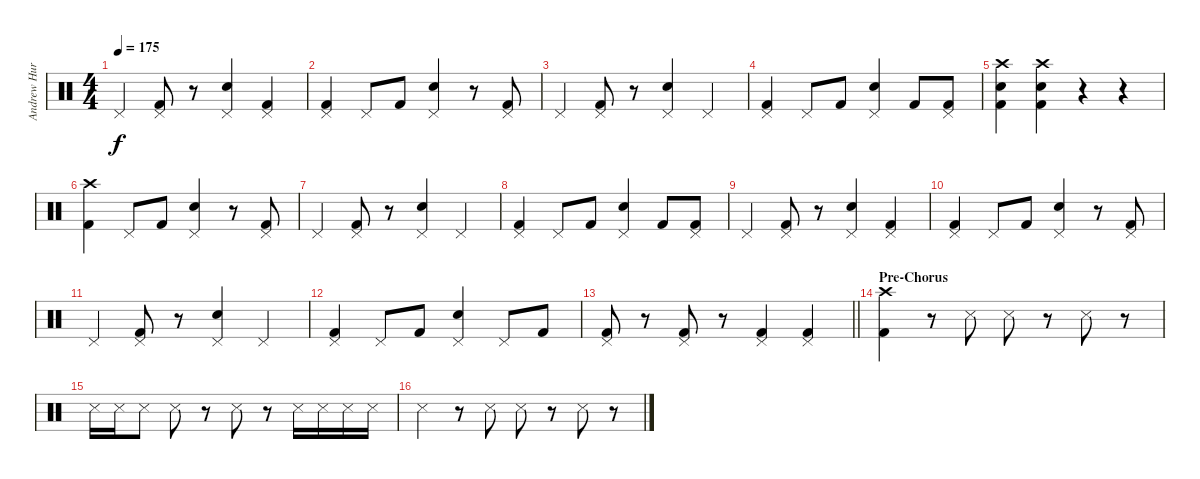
\track ("Andrew Hurley (Drums)" "Andrew Hur") {instrument percussion}
\staff {score}
\articulation defaults
\ts (4 4)
\tempo 175
\clef neutral
\ks c "Pedal Hi-Hat (hit)".4{dy f}
("Pedal Hi-Hat (hit)" "Kick (hit) 2").8 r.8 ("Pedal Hi-Hat (hit)" "Snare (hit) 2").4 ("Pedal Hi-Hat (hit)" "Kick (hit) 2").4 |
("Pedal Hi-Hat (hit)" "Kick (hit) 2").4 "Pedal Hi-Hat (hit)".8 "Kick (hit) 2".8 ("Pedal Hi-Hat (hit)" "Snare (hit) 2").4 r.8 ("Pedal Hi-Hat (hit)" "Kick (hit) 2").8 |
"Pedal Hi-Hat (hit)".4 ("Pedal Hi-Hat (hit)" "Kick (hit) 2").8 r.8 ("Pedal Hi-Hat (hit)" "Snare (hit) 2").4 "Pedal Hi-Hat (hit)".4 |
("Pedal Hi-Hat (hit)" "Kick (hit) 2").4 "Pedal Hi-Hat (hit)".8 "Kick (hit) 2".8 ("Pedal Hi-Hat (hit)" "Snare (hit) 2").4 "Kick (hit) 2".8 ("Pedal Hi-Hat (hit)" "Kick (hit) 2").8 |
("Snare (hit) 2" "Crash high (hit)" "Kick (hit) 2").4 ("Crash high (hit)" "Snare (hit) 2" "Kick (hit) 2").4 r.4 r.4 |
("Crash high (hit)" "Kick (hit) 2").4 "Pedal Hi-Hat (hit)".8 "Kick (hit) 2".8 ("Pedal Hi-Hat (hit)" "Snare (hit) 2").4 r.8 ("Pedal Hi-Hat (hit)" "Kick (hit) 2").8 |
"Pedal Hi-Hat (hit)".4 ("Pedal Hi-Hat (hit)" "Kick (hit) 2").8 r.8 ("Pedal Hi-Hat (hit)" "Snare (hit) 2").4 "Pedal Hi-Hat (hit)".4 |
("Pedal Hi-Hat (hit)" "Kick (hit) 2").4 "Pedal Hi-Hat (hit)".8 "Kick (hit) 2".8 ("Pedal Hi-Hat (hit)" "Snare (hit) 2").4 "Kick (hit) 2".8 ("Pedal Hi-Hat (hit)" "Kick (hit) 2").8 |
"Pedal Hi-Hat (hit)".4 ("Pedal Hi-Hat (hit)" "Kick (hit) 2").8 r.8 ("Pedal Hi-Hat (hit)" "Snare (hit) 2").4 ("Pedal Hi-Hat (hit)" "Kick (hit) 2").4 |
("Pedal Hi-Hat (hit)" "Kick (hit) 2").4 "Pedal Hi-Hat (hit)".8 "Kick (hit) 2".8 ("Pedal Hi-Hat (hit)" "Snare (hit) 2").4 r.8 ("Pedal Hi-Hat (hit)" "Kick (hit) 2").8 |
"Pedal Hi-Hat (hit)".4 ("Pedal Hi-Hat (hit)" "Kick (hit) 2").8 r.8 ("Pedal Hi-Hat (hit)" "Snare (hit) 2").4 "Pedal Hi-Hat (hit)".4 |
("Pedal Hi-Hat (hit)" "Kick (hit) 2").4 "Pedal Hi-Hat (hit)".8 "Kick (hit) 2".8 ("Pedal Hi-Hat (hit)" "Snare (hit) 2").4 "Pedal Hi-Hat (hit)".8 "Kick (hit) 2".8 |
\barLineRight lightlight
("Pedal Hi-Hat (hit)" "Kick (hit) 2").8 r.8 ("Pedal Hi-Hat (hit)" "Kick (hit) 2").8 r.8 ("Pedal Hi-Hat (hit)" "Kick (hit) 2").4 ("Pedal Hi-Hat (hit)" "Kick (hit) 2").4 |
\section ("" "Pre-Chorus")
("Crash high (hit)" "Kick (hit) 2").4 r.8 "Snare (side stick) 3".8 "Snare (side stick) 3".8 r.8 "Snare (side stick) 3".8 r.8 |
"Snare (side stick) 3".16 "Snare (side stick) 3".16 "Snare (side stick) 3".8 "Snare (side stick) 3".8 r.8 "Snare (side stick) 3".8 r.8 "Snare (side stick) 3".16 "Snare (side stick) 3".16 "Snare (side stick) 3".16 "Snare (side stick) 3".16 |
"Snare (side stick) 3".4 r.8 "Snare (side stick) 3".8 "Snare (side stick) 3".8 r.8 "Snare (side stick) 3".8 r.8
